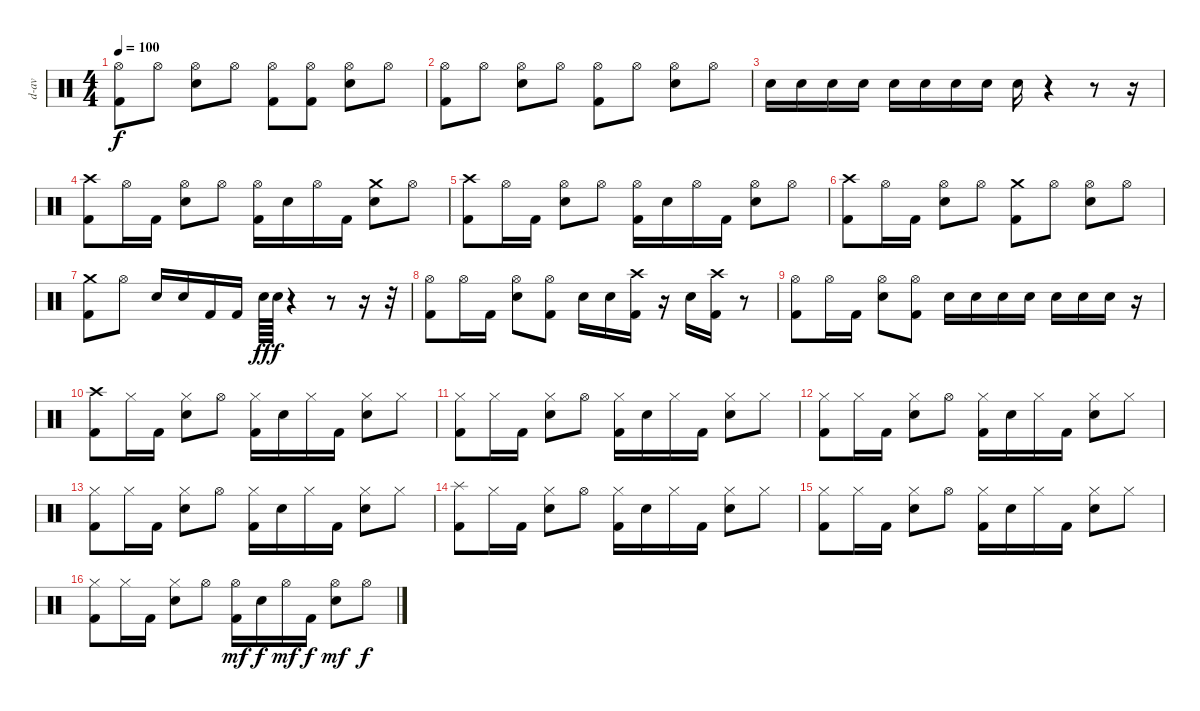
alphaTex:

\track ("d-av" "d-av") {instrument percussion}
\staff {score}
\articulation defaults
\ts (4 4)
\tempo 100
\clef neutral
\ks c
("Hi-Hat (open)" "Kick (hit) 2").8{dy f} "Hi-Hat (open)".8 ("Hi-Hat (open)" "Electric Snare (hit)").8 "Hi-Hat (open)".8 ("Hi-Hat (open)" "Kick (hit) 2").8 ("Hi-Hat (open)" "Kick (hit) 2").8 ("Hi-Hat (open)" "Electric Snare (hit)").8 "Hi-Hat (open)".8 |
("Hi-Hat (open)" "Kick (hit) 2").8 "Hi-Hat (open)".8 ("Hi-Hat (open)" "Electric Snare (hit)").8 "Hi-Hat (open)".8 ("Hi-Hat (open)" "Kick (hit) 2").8 "Hi-Hat (open)".8 ("Hi-Hat (open)" "Electric Snare (hit)").8 "Hi-Hat (open)".8 |
"Electric Snare (hit)".16 "Electric Snare (hit)".16 "Electric Snare (hit)".16 "Electric Snare (hit)".16 "Electric Snare (hit)".16 "Electric Snare (hit)".16 "Electric Snare (hit)".16 "Electric Snare (hit)".16 "Electric Snare (hit)".16 r.4 r.8 r.16 |
("Crash high (hit)" "Kick (hit) 2").8 "Hi-Hat (open)".16 "Kick (hit) 2".16 ("Hi-Hat (open)" "Electric Snare (hit)").8 "Hi-Hat (open)".8 ("Hi-Hat (open)" "Kick (hit) 2").16 "Electric Snare (hit)".16 "Hi-Hat (open)".16 "Kick (hit) 2".16 ("Crash medium (hit)" "Electric Snare (hit)").8 "Hi-Hat (open)".8 |
("Crash high (hit)" "Kick (hit) 2").8 "Hi-Hat (open)".16 "Kick (hit) 2".16 ("Hi-Hat (open)" "Electric Snare (hit)").8 "Hi-Hat (open)".8 ("Hi-Hat (open)" "Kick (hit) 2").16 "Electric Snare (hit)".16 "Hi-Hat (open)".16 "Kick (hit) 2".16 ("Hi-Hat (open)" "Electric Snare (hit)").8 "Hi-Hat (open)".8 |
("Crash high (hit)" "Kick (hit) 2").8 "Hi-Hat (open)".16 "Kick (hit) 2".16 ("Hi-Hat (open)" "Electric Snare (hit)").8 "Hi-Hat (open)".8 ("Crash medium (hit)" "Kick (hit) 2").8 "Hi-Hat (open)".8 ("Hi-Hat (open)" "Electric Snare (hit)").8 "Hi-Hat (open)".8 |
("Crash medium (hit)" "Kick (hit) 2").8 "Hi-Hat (open)".8 "Electric Snare (hit)".16 "Electric Snare (hit)".16 "Kick (hit) 2".16 "Kick (hit) 2".16 "Electric Snare (hit)".64{dy ff} "Electric Snare (hit)".64{dy f} r.4 r.8 r.16 r.32 |
("Hi-Hat (open)" "Kick (hit) 2").8 "Hi-Hat (open)".16 "Kick (hit) 2".16 ("Hi-Hat (open)" "Electric Snare (hit)").8 ("Hi-Hat (open)" "Kick (hit) 2").8 "Electric Snare (hit)".16 "Electric Snare (hit)".16 ("Crash high (hit)" "Kick (hit) 2").16 r.16 "Electric Snare (hit)".16 ("Crash high (hit)" "Kick (hit) 2").16 r.8 |
("Hi-Hat (open)" "Kick (hit) 2").8 "Hi-Hat (open)".16 "Kick (hit) 2".16 ("Hi-Hat (open)" "Electric Snare (hit)").8 ("Hi-Hat (open)" "Kick (hit) 2").8 "Electric Snare (hit)".16 "Electric Snare (hit)".16 "Electric Snare (hit)".16 "Electric Snare (hit)".16 "Electric Snare (hit)".16 "Electric Snare (hit)".16 "Electric Snare (hit)".16 r.16 |
("Crash high (hit)" "Kick (hit) 2").8 "Hi-Hat (closed)".16 "Kick (hit) 2".16 ("Hi-Hat (closed)" "Electric Snare (hit)").8 "Hi-Hat (open)".8 ("Hi-Hat (closed)" "Kick (hit) 2").16 "Electric Snare (hit)".16 "Hi-Hat (closed)".16 "Kick (hit) 2".16 ("Hi-Hat (closed)" "Electric Snare (hit)").8 "Hi-Hat (closed)".8 |
("Hi-Hat (closed)" "Kick (hit) 2").8 "Hi-Hat (closed)".16 "Kick (hit) 2".16 ("Hi-Hat (closed)" "Electric Snare (hit)").8 "Hi-Hat (open)".8 ("Hi-Hat (closed)" "Kick (hit) 2").16 "Electric Snare (hit)".16 "Hi-Hat (closed)".16 "Kick (hit) 2".16 ("Hi-Hat (closed)" "Electric Snare (hit)").8 "Hi-Hat (closed)".8 |
("Hi-Hat (closed)" "Kick (hit) 2").8 "Hi-Hat (closed)".16 "Kick (hit) 2".16 ("Hi-Hat (closed)" "Electric Snare (hit)").8 "Hi-Hat (open)".8 ("Hi-Hat (closed)" "Kick (hit) 2").16 "Electric Snare (hit)".16 "Hi-Hat (closed)".16 "Kick (hit) 2".16 ("Hi-Hat (closed)" "Electric Snare (hit)").8 "Hi-Hat (closed)".8 |
("Hi-Hat (closed)" "Kick (hit) 2").8 "Hi-Hat (closed)".16 "Kick (hit) 2".16 ("Hi-Hat (closed)" "Electric Snare (hit)").8 "Hi-Hat (open)".8 ("Hi-Hat (closed)" "Kick (hit) 2").16 "Electric Snare (hit)".16 "Hi-Hat (closed)".16 "Kick (hit) 2".16 ("Hi-Hat (closed)" "Electric Snare (hit)").8 "Hi-Hat (closed)".8 |
("Splash (hit)" "Kick (hit) 2").8 "Hi-Hat (closed)".16 "Kick (hit) 2".16 ("Hi-Hat (closed)" "Electric Snare (hit)").8 "Hi-Hat (open)".8 ("Hi-Hat (closed)" "Kick (hit) 2").16 "Electric Snare (hit)".16 "Hi-Hat (closed)".16 "Kick (hit) 2".16 ("Hi-Hat (closed)" "Electric Snare (hit)").8 "Hi-Hat (closed)".8 |
("Hi-Hat (closed)" "Kick (hit) 2").8 "Hi-Hat (closed)".16 "Kick (hit) 2".16 ("Hi-Hat (closed)" "Electric Snare (hit)").8 "Hi-Hat (open)".8 ("Hi-Hat (closed)" "Kick (hit) 2").16 "Electric Snare (hit)".16 "Hi-Hat (closed)".16 "Kick (hit) 2".16 ("Hi-Hat (closed)" "Electric Snare (hit)").8 "Hi-Hat (closed)".8 |
("Hi-Hat (closed)" "Kick (hit) 2").8 "Hi-Hat (closed)".16 "Kick (hit) 2".16 ("Hi-Hat (closed)" "Electric Snare (hit)").8 "Hi-Hat (open)".8 ("Hi-Hat (open)" "Kick (hit) 2").16{dy mf} "Electric Snare (hit)".16{dy f} "Hi-Hat (open)".16{dy mf} "Kick (hit) 2".16{dy f} ("Hi-Hat (open)" "Electric Snare (hit)").8{dy mf} "Hi-Hat (open)".8{dy f}
